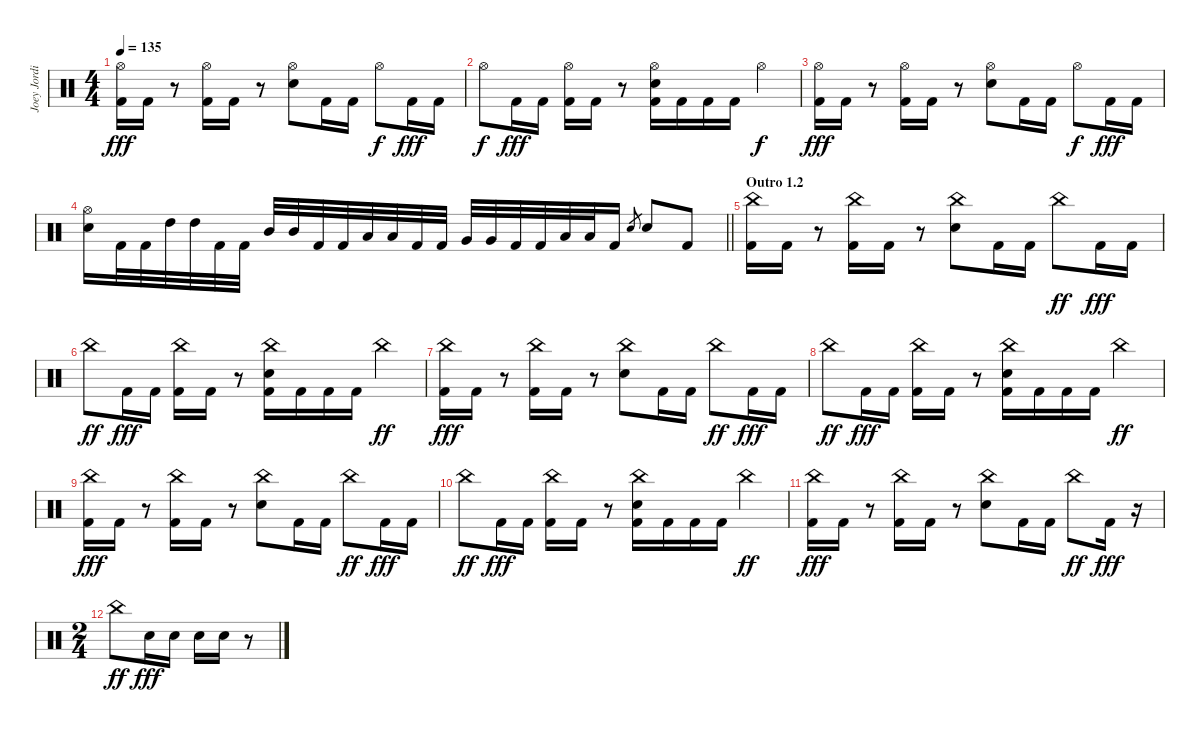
\track ("Joey Jordison" "Joey Jordi") {instrument percussion}
\staff {score}
\articulation defaults
\ts (4 4)
\tempo 135
\clef neutral
\ks c
("Hi-Hat (open)" "Kick (hit) 2").16{dy fff} "Kick (hit) 2".16 r.8 ("Hi-Hat (open)" "Kick (hit) 2").16 "Kick (hit) 2".16 r.8 ("Hi-Hat (open)" "Electric Snare (hit)").8 "Kick (hit) 2".16 "Kick (hit) 2".16 "Hi-Hat (open)".8{dy f} "Kick (hit) 2".16{dy fff} "Kick (hit) 2".16 |
"Hi-Hat (open)".8{dy f} "Kick (hit) 2".16{dy fff} "Kick (hit) 2".16 ("Hi-Hat (open)" "Kick (hit) 2").16 "Kick (hit) 2".16 r.8 ("Hi-Hat (open)" "Electric Snare (hit)" "Kick (hit) 2").16 "Kick (hit) 2".16 "Kick (hit) 2".16 "Kick (hit) 2".16 "Hi-Hat (open)".4{dy f} |
("Hi-Hat (open)" "Kick (hit) 2").16{dy fff} "Kick (hit) 2".16 r.8 ("Hi-Hat (open)" "Kick (hit) 2").16 "Kick (hit) 2".16 r.8 ("Hi-Hat (open)" "Electric Snare (hit)").8 "Kick (hit) 2".16 "Kick (hit) 2".16 "Hi-Hat (open)".8{dy f} "Kick (hit) 2".16{dy fff} "Kick (hit) 2".16 |
\barLineRight lightlight
("Hi-Hat (open)" "Electric Snare (hit)").16 "Kick (hit) 2".32 "Kick (hit) 2".32 "High Tom (hit)".32 "High Tom (hit)".32 "Kick (hit) 2".32 "Kick (hit) 2".32 "Mid Tom (hit)".32 "Mid Tom (hit)".32 "Kick (hit) 2".32 "Kick (hit) 2".32 "Low Tom (hit)".32 "Low Tom (hit)".32 "Kick (hit) 2".32 "Kick (hit) 2".32 "Very Low Tom (hit)".32 "Very Low Tom (hit)".32 "Kick (hit) 2".32 "Kick (hit) 2".32 "Low Floor Tom (hit)".32 "Low Floor Tom (hit)".32 "Kick (hit) 2".16 "Electric Snare (hit)".8{gr} "Electric Snare (hit)".8 "Kick (hit) 2".8 |
\section ("" "Outro 1.2")
("China (hit)" "Kick (hit) 2").16 "Kick (hit) 2".16 r.8 ("China (hit)" "Kick (hit) 2").16 "Kick (hit) 2".16 r.8 ("China (hit)" "Electric Snare (hit)").8 "Kick (hit) 2".16 "Kick (hit) 2".16 "China (hit)".8{dy ff} "Kick (hit) 2".16{dy fff} "Kick (hit) 2".16 |
"China (hit)".8{dy ff} "Kick (hit) 2".16{dy fff} "Kick (hit) 2".16 ("China (hit)" "Kick (hit) 2").16 "Kick (hit) 2".16 r.8 ("China (hit)" "Electric Snare (hit)" "Kick (hit) 2").16 "Kick (hit) 2".16 "Kick (hit) 2".16 "Kick (hit) 2".16 "China (hit)".4{dy ff} |
("China (hit)" "Kick (hit) 2").16{dy fff} "Kick (hit) 2".16 r.8 ("China (hit)" "Kick (hit) 2").16 "Kick (hit) 2".16 r.8 ("China (hit)" "Electric Snare (hit)").8 "Kick (hit) 2".16 "Kick (hit) 2".16 "China (hit)".8{dy ff} "Kick (hit) 2".16{dy fff} "Kick (hit) 2".16 |
"China (hit)".8{dy ff} "Kick (hit) 2".16{dy fff} "Kick (hit) 2".16 ("China (hit)" "Kick (hit) 2").16 "Kick (hit) 2".16 r.8 ("China (hit)" "Electric Snare (hit)" "Kick (hit) 2").16 "Kick (hit) 2".16 "Kick (hit) 2".16 "Kick (hit) 2".16 "China (hit)".4{dy ff} |
("China (hit)" "Kick (hit) 2").16{dy fff} "Kick (hit) 2".16 r.8 ("China (hit)" "Kick (hit) 2").16 "Kick (hit) 2".16 r.8 ("China (hit)" "Electric Snare (hit)").8 "Kick (hit) 2".16 "Kick (hit) 2".16 "China (hit)".8{dy ff} "Kick (hit) 2".16{dy fff} "Kick (hit) 2".16 |
"China (hit)".8{dy ff} "Kick (hit) 2".16{dy fff} "Kick (hit) 2".16 ("China (hit)" "Kick (hit) 2").16 "Kick (hit) 2".16 r.8 ("China (hit)" "Electric Snare (hit)" "Kick (hit) 2").16 "Kick (hit) 2".16 "Kick (hit) 2".16 "Kick (hit) 2".16 "China (hit)".4{dy ff} |
("China (hit)" "Kick (hit) 2").16{dy fff} "Kick (hit) 2".16 r.8 ("China (hit)" "Kick (hit) 2").16 "Kick (hit) 2".16 r.8 ("China (hit)" "Electric Snare (hit)").8 "Kick (hit) 2".16 "Kick (hit) 2".16 "China (hit)".8{dy ff} "Kick (hit) 2".16{dy fff} r.16 |
\ts (2 4)
"China (hit)".8{dy ff} "Electric Snare (hit)".16{dy fff} "Electric Snare (hit)".16 "Electric Snare (hit)".16 "Electric Snare (hit)".16 r.8
